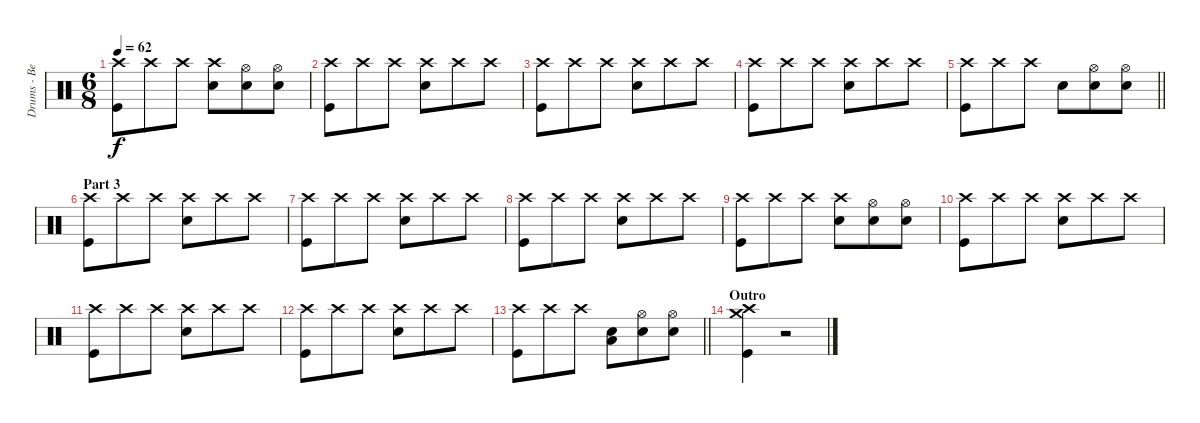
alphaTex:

\track ("Drums - Ben Johnston" "Drums - Be") {instrument percussion}
\staff {score}
\articulation defaults
\ts (6 8)
\tempo 62
\clef neutral
\ks c
("Crash high (hit)" "Kick (hit)").8{dy f} "Crash high (hit)".8 "Crash high (hit)".8 ("Crash high (hit)" "Snare (hit) 2").8 ("Hi-Hat (open)" "Snare (hit) 2").8 ("Hi-Hat (open)" "Snare (hit) 2").8 |
("Crash high (hit)" "Kick (hit)").8 "Crash high (hit)".8 "Crash high (hit)".8 ("Crash high (hit)" "Snare (hit) 2").8 "Crash high (hit)".8 "Crash high (hit)".8 |
("Crash high (hit)" "Kick (hit)").8 "Crash high (hit)".8 "Crash high (hit)".8 ("Crash high (hit)" "Snare (hit) 2").8 "Crash high (hit)".8 "Crash high (hit)".8 |
("Crash high (hit)" "Kick (hit)").8 "Crash high (hit)".8 "Crash high (hit)".8 ("Crash high (hit)" "Snare (hit) 2").8 "Crash high (hit)".8 "Crash high (hit)".8 |
\barLineRight lightlight
("Crash high (hit)" "Kick (hit)").8 "Crash high (hit)".8 "Crash high (hit)".8 "Snare (hit) 2".8 ("Hi-Hat (open)" "Snare (hit) 2").8 ("Hi-Hat (open)" "Snare (hit) 2").8 |
\section ("" "Part 3")
("Crash high (hit)" "Kick (hit)").8 "Crash high (hit)".8 "Crash high (hit)".8 ("Crash high (hit)" "Snare (hit) 2").8 "Crash high (hit)".8 "Crash high (hit)".8 |
("Crash high (hit)" "Kick (hit)").8 "Crash high (hit)".8 "Crash high (hit)".8 ("Crash high (hit)" "Snare (hit) 2").8 "Crash high (hit)".8 "Crash high (hit)".8 |
("Crash high (hit)" "Kick (hit)").8 "Crash high (hit)".8 "Crash high (hit)".8 ("Crash high (hit)" "Snare (hit) 2").8 "Crash high (hit)".8 "Crash high (hit)".8 |
("Crash high (hit)" "Kick (hit)").8 "Crash high (hit)".8 "Crash high (hit)".8 ("Crash high (hit)" "Snare (hit) 2").8 ("Hi-Hat (open)" "Snare (hit) 2").8 ("Hi-Hat (open)" "Snare (hit) 2").8 |
("Crash high (hit)" "Kick (hit)").8 "Crash high (hit)".8 "Crash high (hit)".8 ("Crash high (hit)" "Snare (hit) 2").8 "Crash high (hit)".8 "Crash high (hit)".8 |
("Crash high (hit)" "Kick (hit)").8 "Crash high (hit)".8 "Crash high (hit)".8 ("Crash high (hit)" "Snare (hit) 2").8 "Crash high (hit)".8 "Crash high (hit)".8 |
("Crash high (hit)" "Kick (hit)").8 "Crash high (hit)".8 "Crash high (hit)".8 ("Crash high (hit)" "Snare (hit) 2").8 "Crash high (hit)".8 "Crash high (hit)".8 |
\barLineRight lightlight
("Crash high (hit)" "Kick (hit)").8 "Crash high (hit)".8 "Crash high (hit)".8 ("Low Tom (hit)" "Snare (hit) 2").8 ("Hi-Hat (open)" "Snare (hit) 2").8 ("Hi-Hat (open)" "Snare (hit) 2").8 |
\section ("" "Outro")
("Crash high (hit)" "Crash medium (hit)" "Kick (hit)").4 r.2
